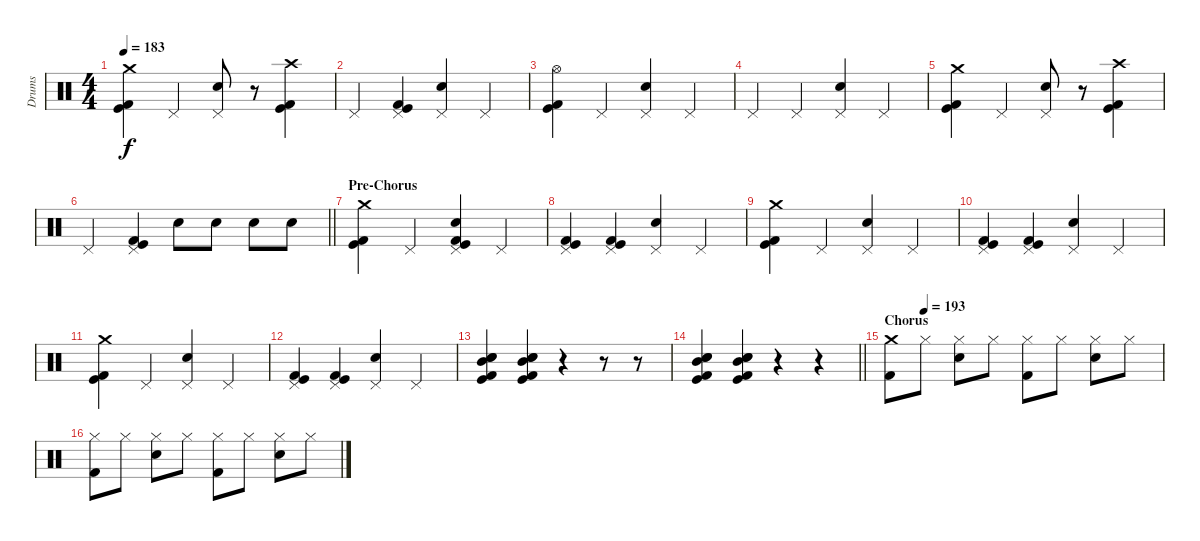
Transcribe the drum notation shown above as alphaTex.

\track ("Drums" "Drums") {instrument percussion}
\staff
\articulation defaults
\ts (4 4)
\tempo 183
\clef neutral
\ks c
("Crash medium (hit)" "Kick (hit)" "Kick (hit) 2").4{dy f} "Pedal Hi-Hat (hit)".4 ("Pedal Hi-Hat (hit)" "Snare (hit) 2").8 r.8 ("Crash high (hit)" "Kick (hit)" "Kick (hit) 2").4 |
"Pedal Hi-Hat (hit)".4 ("Pedal Hi-Hat (hit)" "Kick (hit)" "Kick (hit) 2").4 ("Pedal Hi-Hat (hit)" "Snare (hit) 2").4 "Pedal Hi-Hat (hit)".4 |
("Hi-Hat (open)" "Kick (hit)" "Kick (hit) 2").4 "Pedal Hi-Hat (hit)".4 ("Pedal Hi-Hat (hit)" "Snare (hit) 2").4 "Pedal Hi-Hat (hit)".4 |
"Pedal Hi-Hat (hit)".4 "Pedal Hi-Hat (hit)".4 ("Pedal Hi-Hat (hit)" "Snare (hit) 2").4 "Pedal Hi-Hat (hit)".4 |
("Crash medium (hit)" "Kick (hit)" "Kick (hit) 2").4 "Pedal Hi-Hat (hit)".4 ("Pedal Hi-Hat (hit)" "Snare (hit) 2").8 r.8 ("Crash high (hit)" "Kick (hit)" "Kick (hit) 2").4 |
\barLineRight lightlight "Pedal Hi-Hat (hit)".4
("Pedal Hi-Hat (hit)" "Kick (hit)" "Kick (hit) 2").4 "Snare (hit) 2".8 "Snare (hit) 2".8 "Snare (hit) 2".8 "Snare (hit) 2".8 |
\section ("" "Pre-Chorus")
("Crash medium (hit)" "Kick (hit)" "Kick (hit) 2").4 "Pedal Hi-Hat (hit)".4 ("Pedal Hi-Hat (hit)" "Snare (hit) 2" "Kick (hit)" "Kick (hit) 2").4 "Pedal Hi-Hat (hit)".4 |
("Pedal Hi-Hat (hit)" "Kick (hit)" "Kick (hit) 2").4 ("Pedal Hi-Hat (hit)" "Kick (hit)" "Kick (hit) 2").4 ("Pedal Hi-Hat (hit)" "Snare (hit) 2").4 "Pedal Hi-Hat (hit)".4 |
("Crash medium (hit)" "Kick (hit)" "Kick (hit) 2").4 "Pedal Hi-Hat (hit)".4 ("Pedal Hi-Hat (hit)" "Snare (hit) 2").4 "Pedal Hi-Hat (hit)".4 |
("Pedal Hi-Hat (hit)" "Kick (hit)" "Kick (hit) 2").4 ("Pedal Hi-Hat (hit)" "Kick (hit)" "Kick (hit) 2").4 ("Pedal Hi-Hat (hit)" "Snare (hit) 2").4 "Pedal Hi-Hat (hit)".4 |
("Crash medium (hit)" "Kick (hit)" "Kick (hit) 2").4 "Pedal Hi-Hat (hit)".4 ("Pedal Hi-Hat (hit)" "Snare (hit) 2").4 "Pedal Hi-Hat (hit)".4 |
("Pedal Hi-Hat (hit)" "Kick (hit)" "Kick (hit) 2").4 ("Pedal Hi-Hat (hit)" "Kick (hit)" "Kick (hit) 2").4 ("Pedal Hi-Hat (hit)" "Snare (hit) 2").4 "Pedal Hi-Hat (hit)".4 |
("Electric Snare (hit)" "Snare (hit) 2" "Mid Tom (hit)" "Kick (hit)" "Kick (hit) 2").4 ("Electric Snare (hit)" "Snare (hit) 2" "Mid Tom (hit)" "Kick (hit)" "Kick (hit) 2").4 r.4 r.8 r.8 |
\barLineRight lightlight
("Electric Snare (hit)" "Snare (hit) 2" "Mid Tom (hit)" "Kick (hit)" "Kick (hit) 2").4 ("Electric Snare (hit)" "Snare (hit) 2" "Mid Tom (hit)" "Kick (hit)" "Kick (hit) 2").4 r.4 r.4 |
\section ("" "Chorus")
\tempo (193 0.125)
("Crash medium (hit)" "Kick (hit) 2").8 "Hi-Hat (closed)".8 ("Hi-Hat (closed)" "Snare (hit) 2").8 "Hi-Hat (closed)".8 ("Hi-Hat (closed)" "Kick (hit) 2").8 "Hi-Hat (closed)".8 ("Hi-Hat (closed)" "Snare (hit) 2").8 "Hi-Hat (closed)".8 |
("Hi-Hat (closed)" "Kick (hit) 2").8 "Hi-Hat (closed)".8 ("Hi-Hat (closed)" "Snare (hit) 2").8 "Hi-Hat (closed)".8 ("Hi-Hat (closed)" "Kick (hit) 2").8 "Hi-Hat (closed)".8 ("Hi-Hat (closed)" "Snare (hit) 2").8 "Hi-Hat (closed)".8
